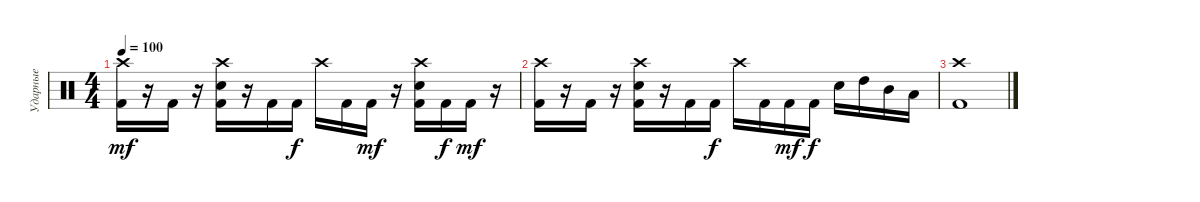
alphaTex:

\track ("Ударные" "Ударные") {instrument percussion}
\staff {score}
\articulation defaults
\ts (4 4)
\tempo 100
\clef neutral
\ks c
("Crash high (hit)" "Kick (hit) 2").16{dy mf} r.16 "Kick (hit) 2".16 r.16 ("Crash high (hit)" "Electric Snare (hit)" "Kick (hit) 2").16 r.16 "Kick (hit) 2".16 "Kick (hit) 2".16{dy f} "Crash high (hit)".16 "Kick (hit) 2".16 "Kick (hit) 2".16{dy mf} r.16 ("Crash high (hit)" "Electric Snare (hit)" "Kick (hit) 2").16 "Kick (hit) 2".16{dy f} "Kick (hit) 2".16{dy mf} r.16 |
("Crash high (hit)" "Kick (hit) 2").16 r.16 "Kick (hit) 2".16 r.16 ("Crash high (hit)" "Electric Snare (hit)" "Kick (hit) 2").16 r.16 "Kick (hit) 2".16 "Kick (hit) 2".16{dy f} "Crash high (hit)".16 "Kick (hit) 2".16 "Kick (hit) 2".16{dy mf} "Kick (hit) 2".16{dy f} "Electric Snare (hit)".16 "High Tom (hit)".16 "Mid Tom (hit)".16 "Low Tom (hit)".16 |
("Crash high (hit)" "Kick (hit) 2").1
